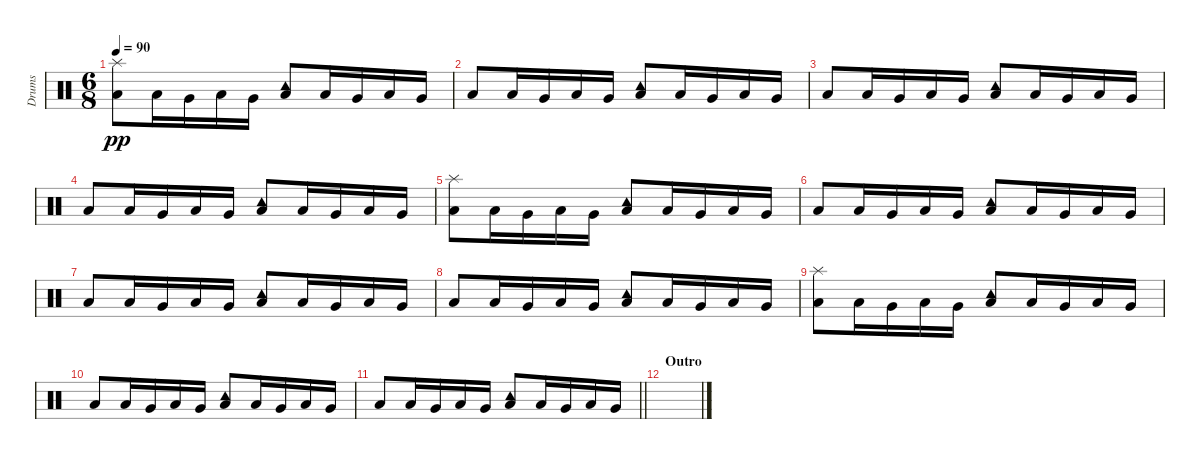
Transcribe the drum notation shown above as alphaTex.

\track ("Drums" "Drums") {instrument percussion}
\staff {score}
\articulation defaults
\ts (6 8)
\tempo 90
\clef neutral
\ks c
("Splash (hit)" "Low Floor Tom (hit)").8{dy pp} "Low Floor Tom (hit)".16 "Very Low Tom (hit)".16 "Low Floor Tom (hit)".16 "Very Low Tom (hit)".16 ("Tambourine (hit)" "Low Floor Tom (hit)").8 "Low Floor Tom (hit)".16 "Very Low Tom (hit)".16 "Low Floor Tom (hit)".16 "Very Low Tom (hit)".16 |
"Low Floor Tom (hit)".8 "Low Floor Tom (hit)".16 "Very Low Tom (hit)".16 "Low Floor Tom (hit)".16 "Very Low Tom (hit)".16 ("Tambourine (hit)" "Low Floor Tom (hit)").8 "Low Floor Tom (hit)".16 "Very Low Tom (hit)".16 "Low Floor Tom (hit)".16 "Very Low Tom (hit)".16 |
"Low Floor Tom (hit)".8 "Low Floor Tom (hit)".16 "Very Low Tom (hit)".16 "Low Floor Tom (hit)".16 "Very Low Tom (hit)".16 ("Tambourine (hit)" "Low Floor Tom (hit)").8 "Low Floor Tom (hit)".16 "Very Low Tom (hit)".16 "Low Floor Tom (hit)".16 "Very Low Tom (hit)".16 |
"Low Floor Tom (hit)".8 "Low Floor Tom (hit)".16 "Very Low Tom (hit)".16 "Low Floor Tom (hit)".16 "Very Low Tom (hit)".16 ("Tambourine (hit)" "Low Floor Tom (hit)").8 "Low Floor Tom (hit)".16 "Very Low Tom (hit)".16 "Low Floor Tom (hit)".16 "Very Low Tom (hit)".16 |
("Splash (hit)" "Low Floor Tom (hit)").8 "Low Floor Tom (hit)".16 "Very Low Tom (hit)".16 "Low Floor Tom (hit)".16 "Very Low Tom (hit)".16 ("Tambourine (hit)" "Low Floor Tom (hit)").8 "Low Floor Tom (hit)".16 "Very Low Tom (hit)".16 "Low Floor Tom (hit)".16 "Very Low Tom (hit)".16 |
"Low Floor Tom (hit)".8 "Low Floor Tom (hit)".16 "Very Low Tom (hit)".16 "Low Floor Tom (hit)".16 "Very Low Tom (hit)".16 ("Tambourine (hit)" "Low Floor Tom (hit)").8 "Low Floor Tom (hit)".16 "Very Low Tom (hit)".16 "Low Floor Tom (hit)".16 "Very Low Tom (hit)".16 |
"Low Floor Tom (hit)".8 "Low Floor Tom (hit)".16 "Very Low Tom (hit)".16 "Low Floor Tom (hit)".16 "Very Low Tom (hit)".16 ("Tambourine (hit)" "Low Floor Tom (hit)").8 "Low Floor Tom (hit)".16 "Very Low Tom (hit)".16 "Low Floor Tom (hit)".16 "Very Low Tom (hit)".16 |
"Low Floor Tom (hit)".8 "Low Floor Tom (hit)".16 "Very Low Tom (hit)".16 "Low Floor Tom (hit)".16 "Very Low Tom (hit)".16 ("Tambourine (hit)" "Low Floor Tom (hit)").8 "Low Floor Tom (hit)".16 "Very Low Tom (hit)".16 "Low Floor Tom (hit)".16 "Very Low Tom (hit)".16 |
("Splash (hit)" "Low Floor Tom (hit)").8 "Low Floor Tom (hit)".16 "Very Low Tom (hit)".16 "Low Floor Tom (hit)".16 "Very Low Tom (hit)".16 ("Tambourine (hit)" "Low Floor Tom (hit)").8 "Low Floor Tom (hit)".16 "Very Low Tom (hit)".16 "Low Floor Tom (hit)".16 "Very Low Tom (hit)".16 |
"Low Floor Tom (hit)".8 "Low Floor Tom (hit)".16 "Very Low Tom (hit)".16 "Low Floor Tom (hit)".16 "Very Low Tom (hit)".16 ("Tambourine (hit)" "Low Floor Tom (hit)").8 "Low Floor Tom (hit)".16 "Very Low Tom (hit)".16 "Low Floor Tom (hit)".16 "Very Low Tom (hit)".16 |
\barLineRight lightlight "Low Floor Tom (hit)".8 "Low Floor Tom (hit)".16 "Very Low Tom (hit)".16 "Low Floor Tom (hit)".16 "Very Low Tom (hit)".16
("Tambourine (hit)" "Low Floor Tom (hit)").8 "Low Floor Tom (hit)".16 "Very Low Tom (hit)".16 "Low Floor Tom (hit)".16 "Very Low Tom (hit)".16 |
\section ("" "Outro")
